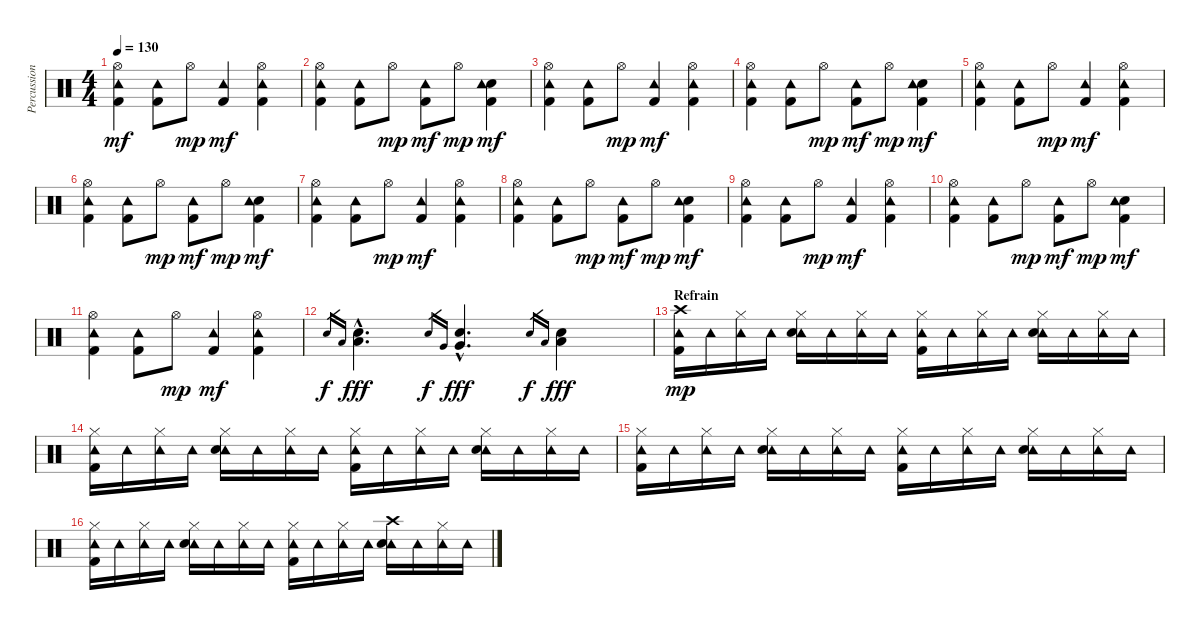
\track ("Percussion (Bela)" "Percussion") {instrument percussion}
\staff {score}
\articulation defaults
\ts (4 4)
\tempo 130
\clef neutral
\ks c
("Hi-Hat (open)" "Tambourine (hit)" "Kick (hit) 2").4{dy mf} ("Tambourine (hit)" "Kick (hit) 2").8 "Hi-Hat (open)".8{dy mp} ("Tambourine (hit)" "Kick (hit) 2").4{dy mf} ("Hi-Hat (open)" "Tambourine (hit)" "Kick (hit) 2").4 |
("Hi-Hat (open)" "Tambourine (hit)" "Kick (hit) 2").4 ("Tambourine (hit)" "Kick (hit) 2").8 "Hi-Hat (open)".8{dy mp} ("Tambourine (hit)" "Kick (hit) 2").8{dy mf} "Hi-Hat (open)".8{dy mp} ("Electric Snare (hit)" "Tambourine (hit)" "Kick (hit) 2").4{dy mf} |
("Hi-Hat (open)" "Tambourine (hit)" "Kick (hit) 2").4 ("Tambourine (hit)" "Kick (hit) 2").8 "Hi-Hat (open)".8{dy mp} ("Tambourine (hit)" "Kick (hit) 2").4{dy mf} ("Hi-Hat (open)" "Tambourine (hit)" "Kick (hit) 2").4 |
("Hi-Hat (open)" "Tambourine (hit)" "Kick (hit) 2").4 ("Tambourine (hit)" "Kick (hit) 2").8 "Hi-Hat (open)".8{dy mp} ("Tambourine (hit)" "Kick (hit) 2").8{dy mf} "Hi-Hat (open)".8{dy mp} ("Electric Snare (hit)" "Tambourine (hit)" "Kick (hit) 2").4{dy mf} |
("Hi-Hat (open)" "Tambourine (hit)" "Kick (hit) 2").4 ("Tambourine (hit)" "Kick (hit) 2").8 "Hi-Hat (open)".8{dy mp} ("Tambourine (hit)" "Kick (hit) 2").4{dy mf} ("Hi-Hat (open)" "Tambourine (hit)" "Kick (hit) 2").4 |
("Hi-Hat (open)" "Tambourine (hit)" "Kick (hit) 2").4 ("Tambourine (hit)" "Kick (hit) 2").8 "Hi-Hat (open)".8{dy mp} ("Tambourine (hit)" "Kick (hit) 2").8{dy mf} "Hi-Hat (open)".8{dy mp} ("Electric Snare (hit)" "Tambourine (hit)" "Kick (hit) 2").4{dy mf} |
("Hi-Hat (open)" "Tambourine (hit)" "Kick (hit) 2").4 ("Tambourine (hit)" "Kick (hit) 2").8 "Hi-Hat (open)".8{dy mp} ("Tambourine (hit)" "Kick (hit) 2").4{dy mf} ("Hi-Hat (open)" "Tambourine (hit)" "Kick (hit) 2").4 |
("Hi-Hat (open)" "Tambourine (hit)" "Kick (hit) 2").4 ("Tambourine (hit)" "Kick (hit) 2").8 "Hi-Hat (open)".8{dy mp} ("Tambourine (hit)" "Kick (hit) 2").8{dy mf} "Hi-Hat (open)".8{dy mp} ("Electric Snare (hit)" "Tambourine (hit)" "Kick (hit) 2").4{dy mf} |
("Hi-Hat (open)" "Tambourine (hit)" "Kick (hit) 2").4 ("Tambourine (hit)" "Kick (hit) 2").8 "Hi-Hat (open)".8{dy mp} ("Tambourine (hit)" "Kick (hit) 2").4{dy mf} ("Hi-Hat (open)" "Tambourine (hit)" "Kick (hit) 2").4 |
("Hi-Hat (open)" "Tambourine (hit)" "Kick (hit) 2").4 ("Tambourine (hit)" "Kick (hit) 2").8 "Hi-Hat (open)".8{dy mp} ("Tambourine (hit)" "Kick (hit) 2").8{dy mf} "Hi-Hat (open)".8{dy mp} ("Electric Snare (hit)" "Tambourine (hit)" "Kick (hit) 2").4{dy mf} |
("Hi-Hat (open)" "Tambourine (hit)" "Kick (hit) 2").4 ("Tambourine (hit)" "Kick (hit) 2").8 "Hi-Hat (open)".8{dy mp} ("Tambourine (hit)" "Kick (hit) 2").4{dy mf} ("Hi-Hat (open)" "Tambourine (hit)" "Kick (hit) 2").4 |
"Electric Snare (hit)".16{gr dy f} "Low Tom (hit)".16{gr} ("Electric Snare (hit)"{hac} "Low Tom (hit)"{hac}).4{d dy fff} "Electric Snare (hit)".16{gr dy f} "Very Low Tom (hit)".16{gr} ("Electric Snare (hit)"{hac} "Very Low Tom (hit)"{hac}).4{d dy fff} "Electric Snare (hit)".16{gr dy f} "Low Floor Tom (hit)".16{gr} ("Electric Snare (hit)" "Low Floor Tom (hit)").4{dy fff} |
\section ("" "Refrain")
("Crash high (hit)" "Tambourine (hit)" "Kick (hit) 2").16{dy mp} "Tambourine (hit)".16 ("Hi-Hat (closed)" "Tambourine (hit)").16 "Tambourine (hit)".16 ("Hi-Hat (closed)" "Tambourine (hit)" "Electric Snare (hit)").16 "Tambourine (hit)".16 ("Hi-Hat (closed)" "Tambourine (hit)").16 "Tambourine (hit)".16 ("Hi-Hat (closed)" "Tambourine (hit)" "Kick (hit) 2").16 "Tambourine (hit)".16 ("Hi-Hat (closed)" "Tambourine (hit)").16 "Tambourine (hit)".16 ("Hi-Hat (closed)" "Tambourine (hit)" "Electric Snare (hit)").16 "Tambourine (hit)".16 ("Hi-Hat (closed)" "Tambourine (hit)").16 "Tambourine (hit)".16 |
("Hi-Hat (closed)" "Tambourine (hit)" "Kick (hit) 2").16 "Tambourine (hit)".16 ("Hi-Hat (closed)" "Tambourine (hit)").16 "Tambourine (hit)".16 ("Hi-Hat (closed)" "Tambourine (hit)" "Electric Snare (hit)").16 "Tambourine (hit)".16 ("Hi-Hat (closed)" "Tambourine (hit)").16 "Tambourine (hit)".16 ("Hi-Hat (closed)" "Tambourine (hit)" "Kick (hit) 2").16 "Tambourine (hit)".16 ("Hi-Hat (closed)" "Tambourine (hit)").16 "Tambourine (hit)".16 ("Hi-Hat (closed)" "Tambourine (hit)" "Electric Snare (hit)").16 "Tambourine (hit)".16 ("Hi-Hat (closed)" "Tambourine (hit)").16 "Tambourine (hit)".16 |
("Hi-Hat (closed)" "Tambourine (hit)" "Kick (hit) 2").16 "Tambourine (hit)".16 ("Hi-Hat (closed)" "Tambourine (hit)").16 "Tambourine (hit)".16 ("Hi-Hat (closed)" "Tambourine (hit)" "Electric Snare (hit)").16 "Tambourine (hit)".16 ("Hi-Hat (closed)" "Tambourine (hit)").16 "Tambourine (hit)".16 ("Hi-Hat (closed)" "Tambourine (hit)" "Kick (hit) 2").16 "Tambourine (hit)".16 ("Hi-Hat (closed)" "Tambourine (hit)").16 "Tambourine (hit)".16 ("Hi-Hat (closed)" "Tambourine (hit)" "Electric Snare (hit)").16 "Tambourine (hit)".16 ("Hi-Hat (closed)" "Tambourine (hit)").16 "Tambourine (hit)".16 |
("Hi-Hat (closed)" "Tambourine (hit)" "Kick (hit) 2").16 "Tambourine (hit)".16 ("Hi-Hat (closed)" "Tambourine (hit)").16 "Tambourine (hit)".16 ("Hi-Hat (closed)" "Tambourine (hit)" "Electric Snare (hit)").16 "Tambourine (hit)".16 ("Hi-Hat (closed)" "Tambourine (hit)").16 "Tambourine (hit)".16 ("Hi-Hat (closed)" "Tambourine (hit)" "Kick (hit) 2").16 "Tambourine (hit)".16 ("Hi-Hat (closed)" "Tambourine (hit)").16 "Tambourine (hit)".16 ("Crash high (hit)" "Tambourine (hit)" "Electric Snare (hit)").16 "Tambourine (hit)".16 ("Hi-Hat (closed)" "Tambourine (hit)").16 "Tambourine (hit)".16
